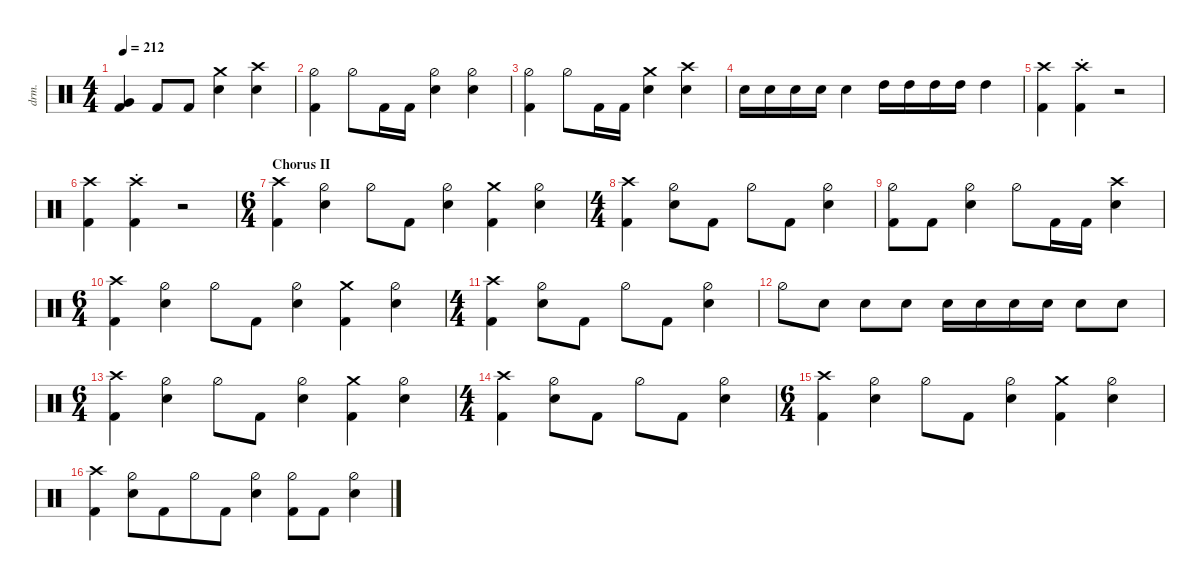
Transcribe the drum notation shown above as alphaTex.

\defaultSystemsLayout 4
\hideDynamics
\bracketExtendMode nobrackets
\track ("Drums" "drm.") {defaultSystemsLayout 4 multiBarRest instrument percussion}
\staff
\articulation defaults
\ts (4 4)
\tempo 212
\clef neutral
\ks c
("Kick (hit) 2" "Very Low Tom (hit)").4{dy f} "Kick (hit) 2".8 "Kick (hit) 2".8 ("Snare (hit) 2" "Crash medium (hit)").4 ("Snare (hit) 2" "Crash high (hit)").4 |
("Hi-Hat (half)" "Kick (hit) 2").4 "Hi-Hat (half)".8 "Kick (hit) 2".16 "Kick (hit) 2".16 ("Snare (hit) 2" "Hi-Hat (half)").4 ("Snare (hit) 2" "Hi-Hat (half)").4 |
("Hi-Hat (half)" "Kick (hit) 2").4 "Hi-Hat (half)".8 "Kick (hit) 2".16 "Kick (hit) 2".16 ("Snare (hit) 2" "Crash medium (hit)").4 ("Snare (hit) 2" "Crash high (hit)").4 |
"Snare (hit) 2".16 "Snare (hit) 2".16{dy mf} "Snare (hit) 2".16 "Snare (hit) 2".16 "Snare (hit) 2".4{dy f} "High Tom (hit)".16{dy ff} "High Tom (hit)".16 "High Tom (hit)".16 "High Tom (hit)".16 "High Tom (hit)".4 |
("Kick (hit) 2" "Crash high (hit)").4 ("Kick (hit) 2" "Crash high (hit)"{st}).4 r.2 |
("Kick (hit) 2" "Crash high (hit)").4 ("Kick (hit) 2" "Crash high (hit)"{st}).4 r.2 |
\ts (6 4)
\beaming (8 6 6)
\section ("" "Chorus II")
("Crash high (hit)" "Kick (hit) 2").4{dy f} ("Hi-Hat (half)" "Snare (hit) 2").4 "Hi-Hat (half)".8 "Kick (hit) 2".8 ("Hi-Hat (half)" "Snare (hit) 2").4 ("Kick (hit) 2" "Crash medium (hit)").4 ("Hi-Hat (half)" "Snare (hit) 2").4 |
\ts (4 4)
\beaming (8 2 2 2 2)
("Crash high (hit)" "Kick (hit) 2").4 ("Hi-Hat (half)" "Snare (hit) 2").8 "Kick (hit) 2".8 "Hi-Hat (half)".8 "Kick (hit) 2".8 ("Hi-Hat (half)" "Snare (hit) 2").4 |
("Hi-Hat (half)" "Kick (hit) 2").8 "Kick (hit) 2".8 ("Hi-Hat (half)" "Snare (hit) 2").4 "Hi-Hat (half)".8 "Kick (hit) 2".16 "Kick (hit) 2".16 ("Snare (hit) 2" "Crash high (hit)").4 |
\ts (6 4)
\beaming (8 6 6)
("Crash high (hit)" "Kick (hit) 2").4 ("Hi-Hat (half)" "Snare (hit) 2").4 "Hi-Hat (half)".8 "Kick (hit) 2".8 ("Hi-Hat (half)" "Snare (hit) 2").4 ("Kick (hit) 2" "Crash medium (hit)").4 ("Hi-Hat (half)" "Snare (hit) 2").4 |
\ts (4 4)
\beaming (8 2 2 2 2)
("Crash high (hit)" "Kick (hit) 2").4 ("Hi-Hat (half)" "Snare (hit) 2").8 "Kick (hit) 2".8 "Hi-Hat (half)".8 "Kick (hit) 2".8 ("Hi-Hat (half)" "Snare (hit) 2").4 |
"Hi-Hat (half)".8 "Snare (hit) 2".8 "Snare (hit) 2".8 "Snare (hit) 2".8 "Snare (hit) 2".16 "Snare (hit) 2".16{dy mf} "Snare (hit) 2".16 "Snare (hit) 2".16{dy f} "Snare (hit) 2".8 "Snare (hit) 2".8 |
\ts (6 4)
\beaming (8 6 6)
("Crash high (hit)" "Kick (hit) 2").4 ("Hi-Hat (half)" "Snare (hit) 2").4 "Hi-Hat (half)".8 "Kick (hit) 2".8 ("Hi-Hat (half)" "Snare (hit) 2").4 ("Kick (hit) 2" "Crash medium (hit)").4 ("Hi-Hat (half)" "Snare (hit) 2").4 |
\ts (4 4)
\beaming (8 2 2 2 2)
("Crash high (hit)" "Kick (hit) 2").4 ("Hi-Hat (half)" "Snare (hit) 2").8 "Kick (hit) 2".8 "Hi-Hat (half)".8 "Kick (hit) 2".8 ("Hi-Hat (half)" "Snare (hit) 2").4 |
\ts (6 4)
\beaming (8 6 6)
("Crash high (hit)" "Kick (hit) 2").4 ("Hi-Hat (half)" "Snare (hit) 2").4 "Hi-Hat (half)".8 "Kick (hit) 2".8 ("Hi-Hat (half)" "Snare (hit) 2").4 ("Kick (hit) 2" "Crash medium (hit)").4 ("Hi-Hat (half)" "Snare (hit) 2").4 |
("Crash high (hit)" "Kick (hit) 2").4 ("Hi-Hat (half)" "Snare (hit) 2").8 "Kick (hit) 2".8 "Hi-Hat (half)".8 "Kick (hit) 2".8 ("Hi-Hat (half)" "Snare (hit) 2").4 ("Hi-Hat (half)" "Kick (hit) 2").8 "Kick (hit) 2".8 ("Hi-Hat (half)" "Snare (hit) 2").4
